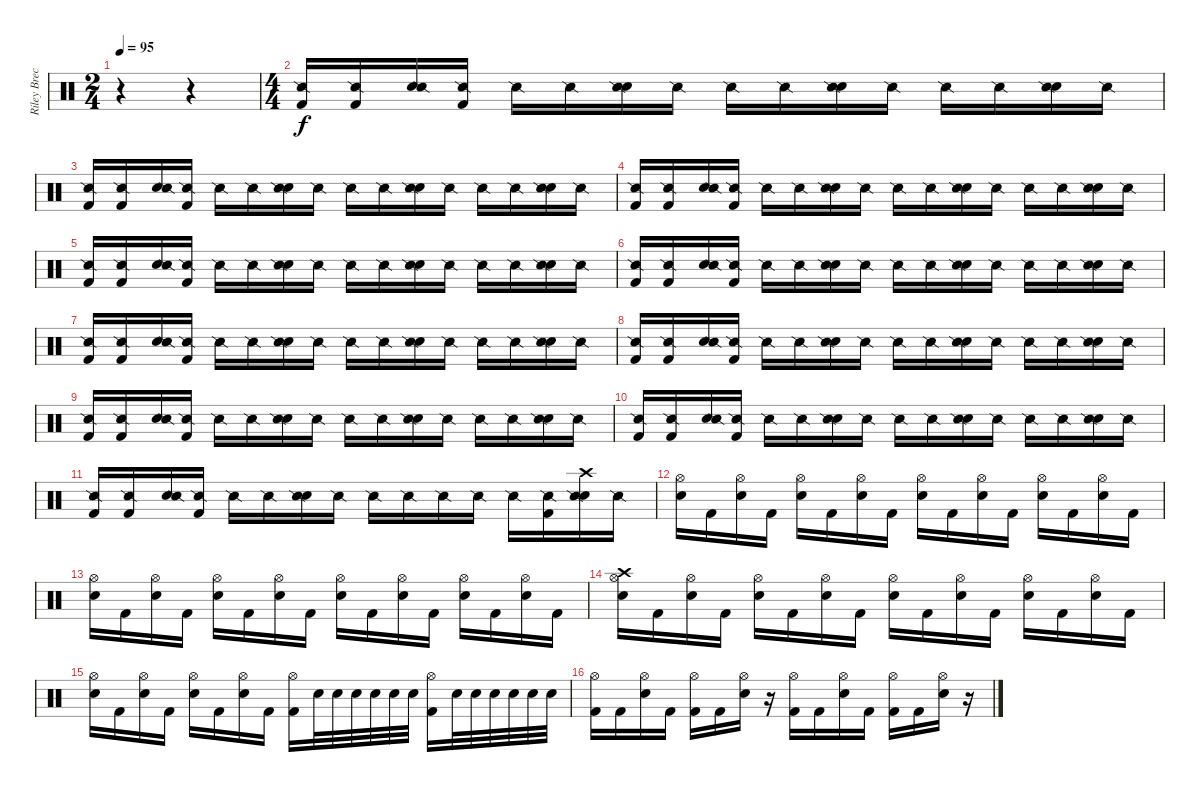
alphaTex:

\track ("Riley Breckenridge" "Riley Brec") {instrument percussion}
\staff {score}
\articulation defaults
\ts (2 4)
\tempo 95
\clef neutral
\ks c
r.4{dy f} r.4 |
\ts (4 4)
("Kick (hit) 2" "Snare (side stick) 2").16 ("Kick (hit) 2" "Snare (side stick) 2").16 ("Electric Snare (hit)" "Snare (side stick) 2").16 ("Kick (hit) 2" "Snare (side stick) 2").16 "Snare (side stick) 2".16 "Snare (side stick) 2".16 ("Electric Snare (hit)" "Snare (side stick) 2").16 "Snare (side stick) 2".16 "Snare (side stick) 2".16 "Snare (side stick) 2".16 ("Electric Snare (hit)" "Snare (side stick) 2").16 "Snare (side stick) 2".16 "Snare (side stick) 2".16 "Snare (side stick) 2".16 ("Electric Snare (hit)" "Snare (side stick) 2").16 "Snare (side stick) 2".16 |
("Kick (hit) 2" "Snare (side stick) 2").16 ("Kick (hit) 2" "Snare (side stick) 2").16 ("Electric Snare (hit)" "Snare (side stick) 2").16 ("Kick (hit) 2" "Snare (side stick) 2").16 "Snare (side stick) 2".16 "Snare (side stick) 2".16 ("Electric Snare (hit)" "Snare (side stick) 2").16 "Snare (side stick) 2".16 "Snare (side stick) 2".16 "Snare (side stick) 2".16 ("Electric Snare (hit)" "Snare (side stick) 2").16 "Snare (side stick) 2".16 "Snare (side stick) 2".16 "Snare (side stick) 2".16 ("Electric Snare (hit)" "Snare (side stick) 2").16 "Snare (side stick) 2".16 |
("Kick (hit) 2" "Snare (side stick) 2").16 ("Kick (hit) 2" "Snare (side stick) 2").16 ("Electric Snare (hit)" "Snare (side stick) 2").16 ("Kick (hit) 2" "Snare (side stick) 2").16 "Snare (side stick) 2".16 "Snare (side stick) 2".16 ("Electric Snare (hit)" "Snare (side stick) 2").16 "Snare (side stick) 2".16 "Snare (side stick) 2".16 "Snare (side stick) 2".16 ("Electric Snare (hit)" "Snare (side stick) 2").16 "Snare (side stick) 2".16 "Snare (side stick) 2".16 "Snare (side stick) 2".16 ("Electric Snare (hit)" "Snare (side stick) 2").16 "Snare (side stick) 2".16 |
("Kick (hit) 2" "Snare (side stick) 2").16 ("Kick (hit) 2" "Snare (side stick) 2").16 ("Electric Snare (hit)" "Snare (side stick) 2").16 ("Kick (hit) 2" "Snare (side stick) 2").16 "Snare (side stick) 2".16 "Snare (side stick) 2".16 ("Electric Snare (hit)" "Snare (side stick) 2").16 "Snare (side stick) 2".16 "Snare (side stick) 2".16 "Snare (side stick) 2".16 ("Electric Snare (hit)" "Snare (side stick) 2").16 "Snare (side stick) 2".16 "Snare (side stick) 2".16 "Snare (side stick) 2".16 ("Electric Snare (hit)" "Snare (side stick) 2").16 "Snare (side stick) 2".16 |
("Kick (hit) 2" "Snare (side stick) 2").16 ("Kick (hit) 2" "Snare (side stick) 2").16 ("Electric Snare (hit)" "Snare (side stick) 2").16 ("Kick (hit) 2" "Snare (side stick) 2").16 "Snare (side stick) 2".16 "Snare (side stick) 2".16 ("Electric Snare (hit)" "Snare (side stick) 2").16 "Snare (side stick) 2".16 "Snare (side stick) 2".16 "Snare (side stick) 2".16 ("Electric Snare (hit)" "Snare (side stick) 2").16 "Snare (side stick) 2".16 "Snare (side stick) 2".16 "Snare (side stick) 2".16 ("Electric Snare (hit)" "Snare (side stick) 2").16 "Snare (side stick) 2".16 |
("Kick (hit) 2" "Snare (side stick) 2").16 ("Kick (hit) 2" "Snare (side stick) 2").16 ("Electric Snare (hit)" "Snare (side stick) 2").16 ("Kick (hit) 2" "Snare (side stick) 2").16 "Snare (side stick) 2".16 "Snare (side stick) 2".16 ("Electric Snare (hit)" "Snare (side stick) 2").16 "Snare (side stick) 2".16 "Snare (side stick) 2".16 "Snare (side stick) 2".16 ("Electric Snare (hit)" "Snare (side stick) 2").16 "Snare (side stick) 2".16 "Snare (side stick) 2".16 "Snare (side stick) 2".16 ("Electric Snare (hit)" "Snare (side stick) 2").16 "Snare (side stick) 2".16 |
("Kick (hit) 2" "Snare (side stick) 2").16 ("Kick (hit) 2" "Snare (side stick) 2").16 ("Electric Snare (hit)" "Snare (side stick) 2").16 ("Kick (hit) 2" "Snare (side stick) 2").16 "Snare (side stick) 2".16 "Snare (side stick) 2".16 ("Electric Snare (hit)" "Snare (side stick) 2").16 "Snare (side stick) 2".16 "Snare (side stick) 2".16 "Snare (side stick) 2".16 ("Electric Snare (hit)" "Snare (side stick) 2").16 "Snare (side stick) 2".16 "Snare (side stick) 2".16 "Snare (side stick) 2".16 ("Electric Snare (hit)" "Snare (side stick) 2").16 "Snare (side stick) 2".16 |
("Kick (hit) 2" "Snare (side stick) 2").16 ("Kick (hit) 2" "Snare (side stick) 2").16 ("Electric Snare (hit)" "Snare (side stick) 2").16 ("Kick (hit) 2" "Snare (side stick) 2").16 "Snare (side stick) 2".16 "Snare (side stick) 2".16 ("Electric Snare (hit)" "Snare (side stick) 2").16 "Snare (side stick) 2".16 "Snare (side stick) 2".16 "Snare (side stick) 2".16 ("Electric Snare (hit)" "Snare (side stick) 2").16 "Snare (side stick) 2".16 "Snare (side stick) 2".16 "Snare (side stick) 2".16 ("Electric Snare (hit)" "Snare (side stick) 2").16 "Snare (side stick) 2".16 |
("Kick (hit) 2" "Snare (side stick) 2").16 ("Kick (hit) 2" "Snare (side stick) 2").16 ("Electric Snare (hit)" "Snare (side stick) 2").16 ("Kick (hit) 2" "Snare (side stick) 2").16 "Snare (side stick) 2".16 "Snare (side stick) 2".16 ("Electric Snare (hit)" "Snare (side stick) 2").16 "Snare (side stick) 2".16 "Snare (side stick) 2".16 "Snare (side stick) 2".16 ("Electric Snare (hit)" "Snare (side stick) 2").16 "Snare (side stick) 2".16 "Snare (side stick) 2".16 "Snare (side stick) 2".16 ("Electric Snare (hit)" "Snare (side stick) 2").16 "Snare (side stick) 2".16 |
("Kick (hit) 2" "Snare (side stick) 2").16 ("Kick (hit) 2" "Snare (side stick) 2").16 ("Electric Snare (hit)" "Snare (side stick) 2").16 ("Kick (hit) 2" "Snare (side stick) 2").16 "Snare (side stick) 2".16 "Snare (side stick) 2".16 ("Electric Snare (hit)" "Snare (side stick) 2").16 "Snare (side stick) 2".16 "Snare (side stick) 2".16 "Snare (side stick) 2".16 "Snare (side stick) 2".16 "Snare (side stick) 2".16 "Snare (side stick) 2".16 ("Kick (hit) 2" "Snare (side stick) 2").16 ("Crash high (hit)" "Electric Snare (hit)" "Snare (side stick) 2").16 "Snare (side stick) 2".16 |
("Electric Snare (hit)" "Hi-Hat (open)").16 "Kick (hit) 2".16 ("Electric Snare (hit)" "Hi-Hat (open)").16 "Kick (hit) 2".16 ("Electric Snare (hit)" "Hi-Hat (open)").16 "Kick (hit) 2".16 ("Electric Snare (hit)" "Hi-Hat (open)").16 "Kick (hit) 2".16 ("Electric Snare (hit)" "Hi-Hat (open)").16 "Kick (hit) 2".16 ("Electric Snare (hit)" "Hi-Hat (open)").16 "Kick (hit) 2".16 ("Electric Snare (hit)" "Hi-Hat (open)").16 "Kick (hit) 2".16 ("Electric Snare (hit)" "Hi-Hat (open)").16 "Kick (hit) 2".16 |
("Electric Snare (hit)" "Hi-Hat (open)").16 "Kick (hit) 2".16 ("Electric Snare (hit)" "Hi-Hat (open)").16 "Kick (hit) 2".16 ("Electric Snare (hit)" "Hi-Hat (open)").16 "Kick (hit) 2".16 ("Electric Snare (hit)" "Hi-Hat (open)").16 "Kick (hit) 2".16 ("Electric Snare (hit)" "Hi-Hat (open)").16 "Kick (hit) 2".16 ("Electric Snare (hit)" "Hi-Hat (open)").16 "Kick (hit) 2".16 ("Electric Snare (hit)" "Hi-Hat (open)").16 "Kick (hit) 2".16 ("Electric Snare (hit)" "Hi-Hat (open)").16 "Kick (hit) 2".16 |
("Crash high (hit)" "Electric Snare (hit)" "Hi-Hat (open)").16 "Kick (hit) 2".16 ("Electric Snare (hit)" "Hi-Hat (open)").16 "Kick (hit) 2".16 ("Electric Snare (hit)" "Hi-Hat (open)").16 "Kick (hit) 2".16 ("Electric Snare (hit)" "Hi-Hat (open)").16 "Kick (hit) 2".16 ("Electric Snare (hit)" "Hi-Hat (open)").16 "Kick (hit) 2".16 ("Electric Snare (hit)" "Hi-Hat (open)").16 "Kick (hit) 2".16 ("Electric Snare (hit)" "Hi-Hat (open)").16 "Kick (hit) 2".16 ("Electric Snare (hit)" "Hi-Hat (open)").16 "Kick (hit) 2".16 |
("Electric Snare (hit)" "Hi-Hat (open)").16 "Kick (hit) 2".16 ("Electric Snare (hit)" "Hi-Hat (open)").16 "Kick (hit) 2".16 ("Electric Snare (hit)" "Hi-Hat (open)").16 "Kick (hit) 2".16 ("Electric Snare (hit)" "Hi-Hat (open)").16 "Kick (hit) 2".16 ("Kick (hit) 2" "Hi-Hat (open)").16 "Electric Snare (hit)".32 "Electric Snare (hit)".32 "Electric Snare (hit)".32 "Electric Snare (hit)".32 "Electric Snare (hit)".32 "Electric Snare (hit)".32 ("Kick (hit) 2" "Hi-Hat (open)").16 "Electric Snare (hit)".32 "Electric Snare (hit)".32 "Electric Snare (hit)".32 "Electric Snare (hit)".32 "Electric Snare (hit)".32 "Electric Snare (hit)".32 |
("Kick (hit) 2" "Hi-Hat (open)").16 "Kick (hit) 2".16 ("Electric Snare (hit)" "Hi-Hat (open)").16 "Kick (hit) 2".16 ("Kick (hit) 2" "Hi-Hat (open)").16 "Kick (hit) 2".16 ("Electric Snare (hit)" "Hi-Hat (open)").16 r.16 ("Kick (hit) 2" "Hi-Hat (open)").16 "Kick (hit) 2".16 ("Electric Snare (hit)" "Hi-Hat (open)").16 "Kick (hit) 2".16 ("Kick (hit) 2" "Hi-Hat (open)").16 "Kick (hit) 2".16 ("Electric Snare (hit)" "Hi-Hat (open)").16 r.16
